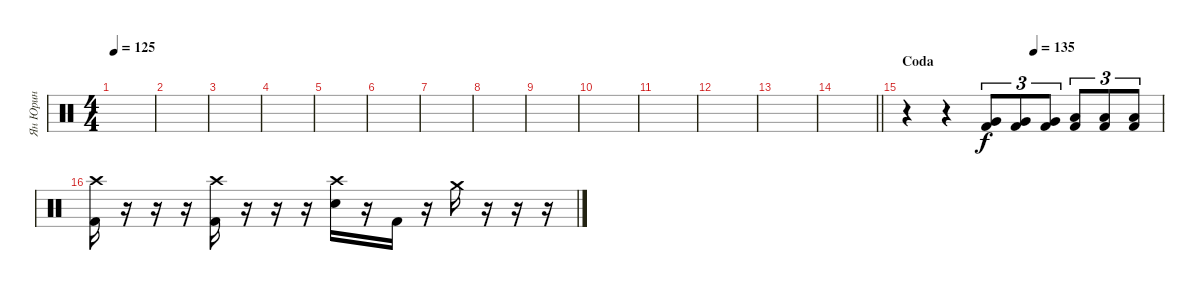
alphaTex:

\track ("Ян Юрин" "Ян Юрин") {instrument percussion}
\staff {score}
\articulation defaults
\ts (4 4)
\tempo 125
\clef neutral
\ks c
|
|
|
|
|
|
|
|
|
|
|
|
|
\barLineRight lightlight
|
\section ("" "Coda")
\tempo (135 0.5)
r.4 r.4 ("Very Low Tom (hit)" "Kick (hit) 2").8{tu (3 2)} ("Very Low Tom (hit)" "Kick (hit) 2").8{tu (3 2)} ("Very Low Tom (hit)" "Kick (hit) 2").8{tu (3 2)} ("Low Floor Tom (hit)" "Kick (hit) 2").8{tu (3 2)} ("Low Floor Tom (hit)" "Kick (hit) 2").8{tu (3 2)} ("Low Floor Tom (hit)" "Kick (hit) 2").8{tu (3 2)} |
("Crash high (hit)" "Kick (hit) 2").16 r.16 r.16 r.16 ("Crash high (hit)" "Kick (hit) 2").16 r.16 r.16 r.16 ("Crash high (hit)" "Electric Snare (hit)").16 r.16 "Kick (hit) 2".16 r.16 "Crash medium (hit)".16 r.16 r.16 r.16
